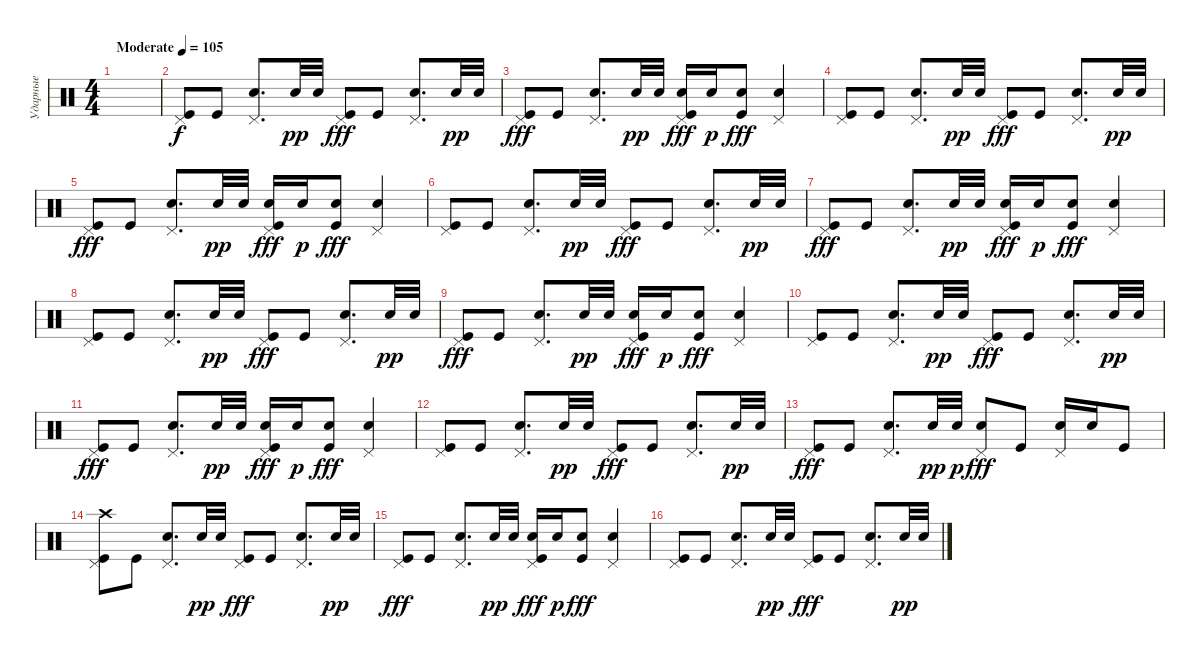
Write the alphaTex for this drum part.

\track ("Ударные" "Ударные") {instrument percussion}
\staff {score}
\articulation defaults
\ts (4 4)
\tempo (105 "Moderate")
\clef neutral
\ks c
|
("Kick (hit)" "Pedal Hi-Hat (hit)").8 "Kick (hit)".8 ("Snare (hit) 2" "Pedal Hi-Hat (hit)").8{d} "Snare (hit) 2".32{dy pp} "Snare (hit) 2".32 ("Kick (hit)" "Pedal Hi-Hat (hit)").8{dy fff} "Kick (hit)".8 ("Snare (hit) 2" "Pedal Hi-Hat (hit)").8{d} "Snare (hit) 2".32{dy pp} "Snare (hit) 2".32 |
("Kick (hit)" "Pedal Hi-Hat (hit)").8{dy fff} "Kick (hit)".8 ("Snare (hit) 2" "Pedal Hi-Hat (hit)").8{d} "Snare (hit) 2".32{dy pp} "Snare (hit) 2".32 ("Snare (hit) 2" "Kick (hit)" "Pedal Hi-Hat (hit)").16{dy fff} "Snare (hit) 2".16{dy p} ("Snare (hit) 2" "Kick (hit)").8{dy fff} ("Snare (hit) 2" "Pedal Hi-Hat (hit)").4 |
("Kick (hit)" "Pedal Hi-Hat (hit)").8 "Kick (hit)".8 ("Snare (hit) 2" "Pedal Hi-Hat (hit)").8{d} "Snare (hit) 2".32{dy pp} "Snare (hit) 2".32 ("Kick (hit)" "Pedal Hi-Hat (hit)").8{dy fff} "Kick (hit)".8 ("Snare (hit) 2" "Pedal Hi-Hat (hit)").8{d} "Snare (hit) 2".32{dy pp} "Snare (hit) 2".32 |
("Kick (hit)" "Pedal Hi-Hat (hit)").8{dy fff} "Kick (hit)".8 ("Snare (hit) 2" "Pedal Hi-Hat (hit)").8{d} "Snare (hit) 2".32{dy pp} "Snare (hit) 2".32 ("Snare (hit) 2" "Kick (hit)" "Pedal Hi-Hat (hit)").16{dy fff} "Snare (hit) 2".16{dy p} ("Snare (hit) 2" "Kick (hit)").8{dy fff} ("Snare (hit) 2" "Pedal Hi-Hat (hit)").4 |
("Kick (hit)" "Pedal Hi-Hat (hit)").8 "Kick (hit)".8 ("Snare (hit) 2" "Pedal Hi-Hat (hit)").8{d} "Snare (hit) 2".32{dy pp} "Snare (hit) 2".32 ("Kick (hit)" "Pedal Hi-Hat (hit)").8{dy fff} "Kick (hit)".8 ("Snare (hit) 2" "Pedal Hi-Hat (hit)").8{d} "Snare (hit) 2".32{dy pp} "Snare (hit) 2".32 |
("Kick (hit)" "Pedal Hi-Hat (hit)").8{dy fff} "Kick (hit)".8 ("Snare (hit) 2" "Pedal Hi-Hat (hit)").8{d} "Snare (hit) 2".32{dy pp} "Snare (hit) 2".32 ("Snare (hit) 2" "Kick (hit)" "Pedal Hi-Hat (hit)").16{dy fff} "Snare (hit) 2".16{dy p} ("Snare (hit) 2" "Kick (hit)").8{dy fff} ("Snare (hit) 2" "Pedal Hi-Hat (hit)").4 |
("Kick (hit)" "Pedal Hi-Hat (hit)").8 "Kick (hit)".8 ("Snare (hit) 2" "Pedal Hi-Hat (hit)").8{d} "Snare (hit) 2".32{dy pp} "Snare (hit) 2".32 ("Kick (hit)" "Pedal Hi-Hat (hit)").8{dy fff} "Kick (hit)".8 ("Snare (hit) 2" "Pedal Hi-Hat (hit)").8{d} "Snare (hit) 2".32{dy pp} "Snare (hit) 2".32 |
("Kick (hit)" "Pedal Hi-Hat (hit)").8{dy fff} "Kick (hit)".8 ("Snare (hit) 2" "Pedal Hi-Hat (hit)").8{d} "Snare (hit) 2".32{dy pp} "Snare (hit) 2".32 ("Snare (hit) 2" "Kick (hit)" "Pedal Hi-Hat (hit)").16{dy fff} "Snare (hit) 2".16{dy p} ("Snare (hit) 2" "Kick (hit)").8{dy fff} ("Snare (hit) 2" "Pedal Hi-Hat (hit)").4 |
("Kick (hit)" "Pedal Hi-Hat (hit)").8 "Kick (hit)".8 ("Snare (hit) 2" "Pedal Hi-Hat (hit)").8{d} "Snare (hit) 2".32{dy pp} "Snare (hit) 2".32 ("Kick (hit)" "Pedal Hi-Hat (hit)").8{dy fff} "Kick (hit)".8 ("Snare (hit) 2" "Pedal Hi-Hat (hit)").8{d} "Snare (hit) 2".32{dy pp} "Snare (hit) 2".32 |
("Kick (hit)" "Pedal Hi-Hat (hit)").8{dy fff} "Kick (hit)".8 ("Snare (hit) 2" "Pedal Hi-Hat (hit)").8{d} "Snare (hit) 2".32{dy pp} "Snare (hit) 2".32 ("Snare (hit) 2" "Kick (hit)" "Pedal Hi-Hat (hit)").16{dy fff} "Snare (hit) 2".16{dy p} ("Snare (hit) 2" "Kick (hit)").8{dy fff} ("Snare (hit) 2" "Pedal Hi-Hat (hit)").4 |
("Kick (hit)" "Pedal Hi-Hat (hit)").8 "Kick (hit)".8 ("Snare (hit) 2" "Pedal Hi-Hat (hit)").8{d} "Snare (hit) 2".32{dy pp} "Snare (hit) 2".32 ("Kick (hit)" "Pedal Hi-Hat (hit)").8{dy fff} "Kick (hit)".8 ("Snare (hit) 2" "Pedal Hi-Hat (hit)").8{d} "Snare (hit) 2".32{dy pp} "Snare (hit) 2".32 |
("Kick (hit)" "Pedal Hi-Hat (hit)").8{dy fff} "Kick (hit)".8 ("Snare (hit) 2" "Pedal Hi-Hat (hit)").8{d} "Snare (hit) 2".32{dy pp} "Snare (hit) 2".32{dy p} ("Snare (hit) 2" "Pedal Hi-Hat (hit)").8{dy fff} "Kick (hit)".8 ("Snare (hit) 2" "Pedal Hi-Hat (hit)").16 "Snare (hit) 2".16 "Kick (hit)".8 |
("Pedal Hi-Hat (hit)" "Crash high (hit)" "Kick (hit)").8 "Kick (hit)".8 ("Snare (hit) 2" "Pedal Hi-Hat (hit)").8{d} "Snare (hit) 2".32{dy pp} "Snare (hit) 2".32 ("Kick (hit)" "Pedal Hi-Hat (hit)").8{dy fff} "Kick (hit)".8 ("Snare (hit) 2" "Pedal Hi-Hat (hit)").8{d} "Snare (hit) 2".32{dy pp} "Snare (hit) 2".32 |
("Kick (hit)" "Pedal Hi-Hat (hit)").8{dy fff} "Kick (hit)".8 ("Snare (hit) 2" "Pedal Hi-Hat (hit)").8{d} "Snare (hit) 2".32{dy pp} "Snare (hit) 2".32 ("Snare (hit) 2" "Kick (hit)" "Pedal Hi-Hat (hit)").16{dy fff} "Snare (hit) 2".16{dy p} ("Snare (hit) 2" "Kick (hit)").8{dy fff} ("Snare (hit) 2" "Pedal Hi-Hat (hit)").4 |
("Kick (hit)" "Pedal Hi-Hat (hit)").8 "Kick (hit)".8 ("Snare (hit) 2" "Pedal Hi-Hat (hit)").8{d} "Snare (hit) 2".32{dy pp} "Snare (hit) 2".32 ("Kick (hit)" "Pedal Hi-Hat (hit)").8{dy fff} "Kick (hit)".8 ("Snare (hit) 2" "Pedal Hi-Hat (hit)").8{d} "Snare (hit) 2".32{dy pp} "Snare (hit) 2".32
